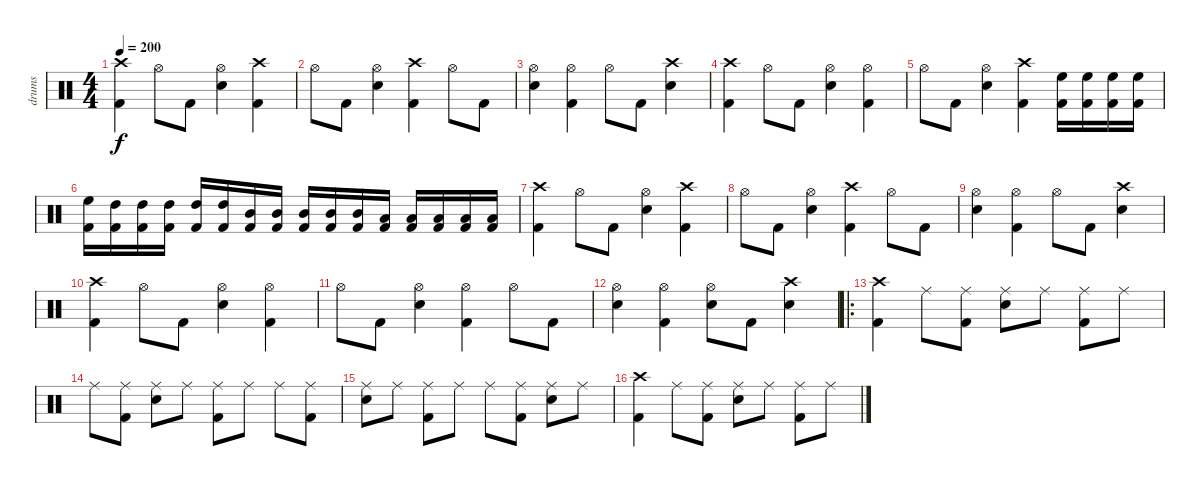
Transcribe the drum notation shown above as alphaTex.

\track ("drums" "drums") {instrument percussion}
\staff {score}
\articulation defaults
\ts (4 4)
\tempo 200
\clef neutral
\ks c
("Kick (hit) 2" "Crash high (hit)").4{dy f} "Hi-Hat (open)".8 "Kick (hit) 2".8 ("Snare (hit) 2" "Hi-Hat (open)").4 ("Kick (hit) 2" "Crash high (hit)").4 |
"Hi-Hat (open)".8 "Kick (hit) 2".8 ("Snare (hit) 2" "Hi-Hat (open)").4 ("Kick (hit) 2" "Crash high (hit)").4 "Hi-Hat (open)".8 "Kick (hit) 2".8 |
("Snare (hit) 2" "Hi-Hat (open)").4 ("Kick (hit) 2" "Hi-Hat (open)").4 "Hi-Hat (open)".8 "Kick (hit) 2".8 ("Snare (hit) 2" "Crash high (hit)").4 |
("Kick (hit) 2" "Crash high (hit)").4 "Hi-Hat (open)".8 "Kick (hit) 2".8 ("Snare (hit) 2" "Hi-Hat (open)").4 ("Kick (hit) 2" "Hi-Hat (open)").4 |
"Hi-Hat (open)".8 "Kick (hit) 2".8 ("Snare (hit) 2" "Hi-Hat (open)").4 ("Kick (hit) 2" "Crash high (hit)").4 ("Kick (hit) 2" "High Floor Tom (hit)").16 ("Kick (hit) 2" "High Floor Tom (hit)").16 ("Kick (hit) 2" "High Floor Tom (hit)").16 ("Kick (hit) 2" "High Floor Tom (hit)").16 |
("Kick (hit) 2" "High Floor Tom (hit)").16 ("Kick (hit) 2" "High Tom (hit)").16 ("Kick (hit) 2" "High Tom (hit)").16 ("Kick (hit) 2" "High Tom (hit)").16 ("Kick (hit) 2" "High Tom (hit)").16 ("Kick (hit) 2" "High Tom (hit)").16 ("Kick (hit) 2" "Mid Tom (hit)").16 ("Kick (hit) 2" "Mid Tom (hit)").16 ("Kick (hit) 2" "Mid Tom (hit)").16 ("Kick (hit) 2" "Mid Tom (hit)").16 ("Kick (hit) 2" "Mid Tom (hit)").16 ("Kick (hit) 2" "Low Tom (hit)").16 ("Kick (hit) 2" "Low Tom (hit)").16 ("Kick (hit) 2" "Low Tom (hit)").16 ("Kick (hit) 2" "Low Tom (hit)").16 ("Kick (hit) 2" "Low Tom (hit)").16 |
("Kick (hit) 2" "Crash high (hit)").4 "Hi-Hat (open)".8 "Kick (hit) 2".8 ("Snare (hit) 2" "Hi-Hat (open)").4 ("Kick (hit) 2" "Crash high (hit)").4 |
"Hi-Hat (open)".8 "Kick (hit) 2".8 ("Snare (hit) 2" "Hi-Hat (open)").4 ("Kick (hit) 2" "Crash high (hit)").4 "Hi-Hat (open)".8 "Kick (hit) 2".8 |
("Snare (hit) 2" "Hi-Hat (open)").4 ("Kick (hit) 2" "Hi-Hat (open)").4 "Hi-Hat (open)".8 "Kick (hit) 2".8 ("Snare (hit) 2" "Crash high (hit)").4 |
("Kick (hit) 2" "Crash high (hit)").4 "Hi-Hat (open)".8 "Kick (hit) 2".8 ("Snare (hit) 2" "Hi-Hat (open)").4 ("Kick (hit) 2" "Hi-Hat (open)").4 |
"Hi-Hat (open)".8 "Kick (hit) 2".8 ("Snare (hit) 2" "Hi-Hat (open)").4 ("Kick (hit) 2" "Hi-Hat (open)").4 "Hi-Hat (open)".8 "Kick (hit) 2".8 |
("Snare (hit) 2" "Hi-Hat (open)").4 ("Kick (hit) 2" "Hi-Hat (open)").4 ("Snare (hit) 2" "Hi-Hat (open)").8 "Kick (hit) 2".8 ("Snare (hit) 2" "Crash high (hit)").4 |
\ro
("Kick (hit) 2" "Crash high (hit)").4 "Ride (middle)".8 ("Kick (hit) 2" "Ride (middle)").8 ("Snare (hit) 2" "Ride (middle)").8 "Ride (middle)".8 ("Kick (hit) 2" "Ride (middle)").8 "Ride (middle)".8 |
"Ride (middle)".8 ("Kick (hit) 2" "Ride (middle)").8 ("Snare (hit) 2" "Ride (middle)").8 "Ride (middle)".8 ("Kick (hit) 2" "Ride (middle)").8 "Ride (middle)".8 "Ride (middle)".8 ("Kick (hit) 2" "Ride (middle)").8 |
("Snare (hit) 2" "Ride (middle)").8 "Ride (middle)".8 ("Kick (hit) 2" "Ride (middle)").8 "Ride (middle)".8 "Ride (middle)".8 ("Kick (hit) 2" "Ride (middle)").8 ("Snare (hit) 2" "Ride (middle)").8 "Ride (middle)".8 |
("Kick (hit) 2" "Crash high (hit)").4 "Ride (middle)".8 ("Kick (hit) 2" "Ride (middle)").8 ("Snare (hit) 2" "Ride (middle)").8 "Ride (middle)".8 ("Kick (hit) 2" "Ride (middle)").8 "Ride (middle)".8
